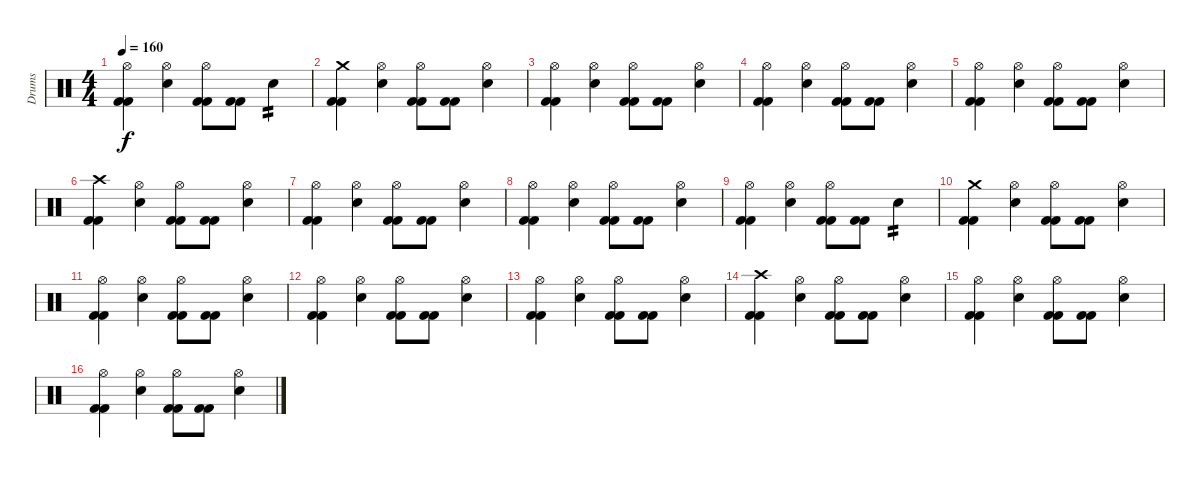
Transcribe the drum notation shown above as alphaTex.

\track ("Drums" "Drums") {instrument percussion}
\staff {score}
\articulation defaults
\ts (4 4)
\tempo 160
\clef neutral
\ks c
("Kick (hit) 2" "Kick (hit) 2" "Hi-Hat (open)").4{dy f} ("Hi-Hat (open)" "Electric Snare (hit)").4 ("Hi-Hat (open)" "Kick (hit) 2" "Kick (hit) 2").8 ("Kick (hit) 2" "Kick (hit) 2").8 "Electric Snare (hit)".4{tp 2} |
("Kick (hit) 2" "Kick (hit) 2" "Crash medium (hit)").4 ("Hi-Hat (open)" "Electric Snare (hit)").4 ("Hi-Hat (open)" "Kick (hit) 2" "Kick (hit) 2").8 ("Kick (hit) 2" "Kick (hit) 2").8 ("Electric Snare (hit)" "Hi-Hat (open)").4 |
("Kick (hit) 2" "Kick (hit) 2" "Hi-Hat (open)").4 ("Hi-Hat (open)" "Electric Snare (hit)").4 ("Hi-Hat (open)" "Kick (hit) 2" "Kick (hit) 2").8 ("Kick (hit) 2" "Kick (hit) 2").8 ("Electric Snare (hit)" "Hi-Hat (open)").4 |
("Kick (hit) 2" "Kick (hit) 2" "Hi-Hat (open)").4 ("Hi-Hat (open)" "Electric Snare (hit)").4 ("Hi-Hat (open)" "Kick (hit) 2" "Kick (hit) 2").8 ("Kick (hit) 2" "Kick (hit) 2").8 ("Electric Snare (hit)" "Hi-Hat (open)").4 |
("Kick (hit) 2" "Kick (hit) 2" "Hi-Hat (open)").4 ("Hi-Hat (open)" "Electric Snare (hit)").4 ("Hi-Hat (open)" "Kick (hit) 2" "Kick (hit) 2").8 ("Kick (hit) 2" "Kick (hit) 2").8 ("Electric Snare (hit)" "Hi-Hat (open)").4 |
("Kick (hit) 2" "Kick (hit) 2" "Crash high (hit)").4 ("Hi-Hat (open)" "Electric Snare (hit)").4 ("Hi-Hat (open)" "Kick (hit) 2" "Kick (hit) 2").8 ("Kick (hit) 2" "Kick (hit) 2").8 ("Electric Snare (hit)" "Hi-Hat (open)").4 |
("Kick (hit) 2" "Kick (hit) 2" "Hi-Hat (open)").4 ("Hi-Hat (open)" "Electric Snare (hit)").4 ("Hi-Hat (open)" "Kick (hit) 2" "Kick (hit) 2").8 ("Kick (hit) 2" "Kick (hit) 2").8 ("Electric Snare (hit)" "Hi-Hat (open)").4 |
("Kick (hit) 2" "Kick (hit) 2" "Hi-Hat (open)").4 ("Hi-Hat (open)" "Electric Snare (hit)").4 ("Hi-Hat (open)" "Kick (hit) 2" "Kick (hit) 2").8 ("Kick (hit) 2" "Kick (hit) 2").8 ("Electric Snare (hit)" "Hi-Hat (open)").4 |
("Kick (hit) 2" "Kick (hit) 2" "Hi-Hat (open)").4 ("Hi-Hat (open)" "Electric Snare (hit)").4 ("Hi-Hat (open)" "Kick (hit) 2" "Kick (hit) 2").8 ("Kick (hit) 2" "Kick (hit) 2").8 "Electric Snare (hit)".4{tp 2} |
("Kick (hit) 2" "Kick (hit) 2" "Crash medium (hit)").4 ("Hi-Hat (open)" "Electric Snare (hit)").4 ("Hi-Hat (open)" "Kick (hit) 2" "Kick (hit) 2").8 ("Kick (hit) 2" "Kick (hit) 2").8 ("Electric Snare (hit)" "Hi-Hat (open)").4 |
("Kick (hit) 2" "Kick (hit) 2" "Hi-Hat (open)").4 ("Hi-Hat (open)" "Electric Snare (hit)").4 ("Hi-Hat (open)" "Kick (hit) 2" "Kick (hit) 2").8 ("Kick (hit) 2" "Kick (hit) 2").8 ("Electric Snare (hit)" "Hi-Hat (open)").4 |
("Kick (hit) 2" "Kick (hit) 2" "Hi-Hat (open)").4 ("Hi-Hat (open)" "Electric Snare (hit)").4 ("Hi-Hat (open)" "Kick (hit) 2" "Kick (hit) 2").8 ("Kick (hit) 2" "Kick (hit) 2").8 ("Electric Snare (hit)" "Hi-Hat (open)").4 |
("Kick (hit) 2" "Kick (hit) 2" "Hi-Hat (open)").4 ("Hi-Hat (open)" "Electric Snare (hit)").4 ("Hi-Hat (open)" "Kick (hit) 2" "Kick (hit) 2").8 ("Kick (hit) 2" "Kick (hit) 2").8 ("Electric Snare (hit)" "Hi-Hat (open)").4 |
("Kick (hit) 2" "Kick (hit) 2" "Crash high (hit)").4 ("Hi-Hat (open)" "Electric Snare (hit)").4 ("Hi-Hat (open)" "Kick (hit) 2" "Kick (hit) 2").8 ("Kick (hit) 2" "Kick (hit) 2").8 ("Electric Snare (hit)" "Hi-Hat (open)").4 |
("Kick (hit) 2" "Kick (hit) 2" "Hi-Hat (open)").4 ("Hi-Hat (open)" "Electric Snare (hit)").4 ("Hi-Hat (open)" "Kick (hit) 2" "Kick (hit) 2").8 ("Kick (hit) 2" "Kick (hit) 2").8 ("Electric Snare (hit)" "Hi-Hat (open)").4 |
("Kick (hit) 2" "Kick (hit) 2" "Hi-Hat (open)").4 ("Hi-Hat (open)" "Electric Snare (hit)").4 ("Hi-Hat (open)" "Kick (hit) 2" "Kick (hit) 2").8 ("Kick (hit) 2" "Kick (hit) 2").8 ("Electric Snare (hit)" "Hi-Hat (open)").4
